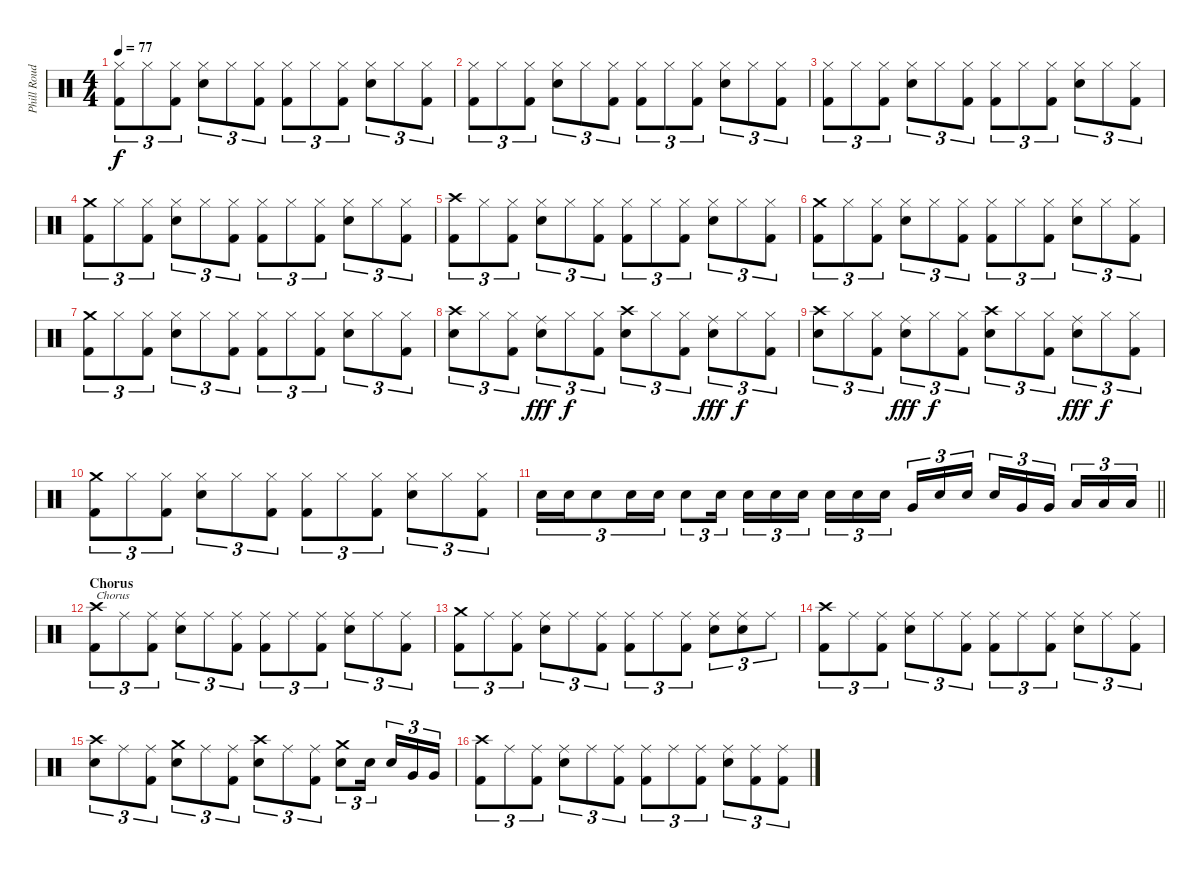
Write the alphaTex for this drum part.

\track ("Phill Roud" "Phill Roud") {instrument percussion}
\staff {score}
\articulation defaults
\ts (4 4)
\tempo 77
\clef neutral
\ks c
("Kick (hit) 2" "Hi-Hat (closed)").8{tu (3 2) dy f} "Hi-Hat (closed)".8{tu (3 2)} ("Kick (hit) 2" "Hi-Hat (closed)").8{tu (3 2)} ("Electric Snare (hit)" "Hi-Hat (closed)").8{tu (3 2)} "Hi-Hat (closed)".8{tu (3 2)} ("Kick (hit) 2" "Hi-Hat (closed)").8{tu (3 2)} ("Kick (hit) 2" "Hi-Hat (closed)").8{tu (3 2)} "Hi-Hat (closed)".8{tu (3 2)} ("Kick (hit) 2" "Hi-Hat (closed)").8{tu (3 2)} ("Electric Snare (hit)" "Hi-Hat (closed)").8{tu (3 2)} "Hi-Hat (closed)".8{tu (3 2)} ("Kick (hit) 2" "Hi-Hat (closed)").8{tu (3 2)} |
("Kick (hit) 2" "Hi-Hat (closed)").8{tu (3 2)} "Hi-Hat (closed)".8{tu (3 2)} ("Kick (hit) 2" "Hi-Hat (closed)").8{tu (3 2)} ("Electric Snare (hit)" "Hi-Hat (closed)").8{tu (3 2)} "Hi-Hat (closed)".8{tu (3 2)} ("Kick (hit) 2" "Hi-Hat (closed)").8{tu (3 2)} ("Kick (hit) 2" "Hi-Hat (closed)").8{tu (3 2)} "Hi-Hat (closed)".8{tu (3 2)} ("Kick (hit) 2" "Hi-Hat (closed)").8{tu (3 2)} ("Electric Snare (hit)" "Hi-Hat (closed)").8{tu (3 2)} "Hi-Hat (closed)".8{tu (3 2)} ("Kick (hit) 2" "Hi-Hat (closed)").8{tu (3 2)} |
("Kick (hit) 2" "Hi-Hat (closed)").8{tu (3 2)} "Hi-Hat (closed)".8{tu (3 2)} ("Kick (hit) 2" "Hi-Hat (closed)").8{tu (3 2)} ("Electric Snare (hit)" "Hi-Hat (closed)").8{tu (3 2)} "Hi-Hat (closed)".8{tu (3 2)} ("Kick (hit) 2" "Hi-Hat (closed)").8{tu (3 2)} ("Kick (hit) 2" "Hi-Hat (closed)").8{tu (3 2)} "Hi-Hat (closed)".8{tu (3 2)} ("Kick (hit) 2" "Hi-Hat (closed)").8{tu (3 2)} ("Electric Snare (hit)" "Hi-Hat (closed)").8{tu (3 2)} "Hi-Hat (closed)".8{tu (3 2)} ("Kick (hit) 2" "Hi-Hat (closed)").8{tu (3 2)} |
("Kick (hit) 2" "Crash medium (hit)").8{tu (3 2)} "Hi-Hat (closed)".8{tu (3 2)} ("Kick (hit) 2" "Hi-Hat (closed)").8{tu (3 2)} ("Electric Snare (hit)" "Hi-Hat (closed)").8{tu (3 2)} "Hi-Hat (closed)".8{tu (3 2)} ("Kick (hit) 2" "Hi-Hat (closed)").8{tu (3 2)} ("Kick (hit) 2" "Hi-Hat (closed)").8{tu (3 2)} "Hi-Hat (closed)".8{tu (3 2)} ("Kick (hit) 2" "Hi-Hat (closed)").8{tu (3 2)} ("Electric Snare (hit)" "Hi-Hat (closed)").8{tu (3 2)} "Hi-Hat (closed)".8{tu (3 2)} ("Kick (hit) 2" "Hi-Hat (closed)").8{tu (3 2)} |
("Kick (hit) 2" "Crash high (hit)").8{tu (3 2)} "Hi-Hat (closed)".8{tu (3 2)} ("Kick (hit) 2" "Hi-Hat (closed)").8{tu (3 2)} ("Electric Snare (hit)" "Hi-Hat (closed)").8{tu (3 2)} "Hi-Hat (closed)".8{tu (3 2)} ("Kick (hit) 2" "Hi-Hat (closed)").8{tu (3 2)} ("Kick (hit) 2" "Hi-Hat (closed)").8{tu (3 2)} "Hi-Hat (closed)".8{tu (3 2)} ("Kick (hit) 2" "Hi-Hat (closed)").8{tu (3 2)} ("Electric Snare (hit)" "Hi-Hat (closed)").8{tu (3 2)} "Hi-Hat (closed)".8{tu (3 2)} ("Kick (hit) 2" "Hi-Hat (closed)").8{tu (3 2)} |
("Kick (hit) 2" "Crash medium (hit)").8{tu (3 2)} "Hi-Hat (closed)".8{tu (3 2)} ("Kick (hit) 2" "Hi-Hat (closed)").8{tu (3 2)} ("Electric Snare (hit)" "Hi-Hat (closed)").8{tu (3 2)} "Hi-Hat (closed)".8{tu (3 2)} ("Kick (hit) 2" "Hi-Hat (closed)").8{tu (3 2)} ("Kick (hit) 2" "Hi-Hat (closed)").8{tu (3 2)} "Hi-Hat (closed)".8{tu (3 2)} ("Kick (hit) 2" "Hi-Hat (closed)").8{tu (3 2)} ("Electric Snare (hit)" "Hi-Hat (closed)").8{tu (3 2)} "Hi-Hat (closed)".8{tu (3 2)} ("Kick (hit) 2" "Hi-Hat (closed)").8{tu (3 2)} |
("Kick (hit) 2" "Crash medium (hit)").8{tu (3 2)} "Hi-Hat (closed)".8{tu (3 2)} ("Kick (hit) 2" "Hi-Hat (closed)").8{tu (3 2)} ("Electric Snare (hit)" "Hi-Hat (closed)").8{tu (3 2)} "Hi-Hat (closed)".8{tu (3 2)} ("Kick (hit) 2" "Hi-Hat (closed)").8{tu (3 2)} ("Kick (hit) 2" "Hi-Hat (closed)").8{tu (3 2)} "Hi-Hat (closed)".8{tu (3 2)} ("Kick (hit) 2" "Hi-Hat (closed)").8{tu (3 2)} ("Electric Snare (hit)" "Hi-Hat (closed)").8{tu (3 2)} "Hi-Hat (closed)".8{tu (3 2)} ("Kick (hit) 2" "Hi-Hat (closed)").8{tu (3 2)} |
("Electric Snare (hit)" "Crash high (hit)").8{tu (3 2)} "Hi-Hat (closed)".8{tu (3 2)} ("Kick (hit) 2" "Hi-Hat (closed)").8{tu (3 2)} ("Electric Snare (hit)" "Ride (middle)").8{tu (3 2) dy fff} "Hi-Hat (closed)".8{tu (3 2) dy f} ("Kick (hit) 2" "Hi-Hat (closed)").8{tu (3 2)} ("Electric Snare (hit)" "Crash high (hit)").8{tu (3 2)} "Hi-Hat (closed)".8{tu (3 2)} ("Kick (hit) 2" "Hi-Hat (closed)").8{tu (3 2)} ("Electric Snare (hit)" "Ride (middle)").8{tu (3 2) dy fff} "Hi-Hat (closed)".8{tu (3 2) dy f} ("Kick (hit) 2" "Hi-Hat (closed)").8{tu (3 2)} |
("Electric Snare (hit)" "Crash high (hit)").8{tu (3 2)} "Hi-Hat (closed)".8{tu (3 2)} ("Kick (hit) 2" "Hi-Hat (closed)").8{tu (3 2)} ("Electric Snare (hit)" "Ride (middle)").8{tu (3 2) dy fff} "Hi-Hat (closed)".8{tu (3 2) dy f} ("Kick (hit) 2" "Hi-Hat (closed)").8{tu (3 2)} ("Electric Snare (hit)" "Crash high (hit)").8{tu (3 2)} "Hi-Hat (closed)".8{tu (3 2)} ("Kick (hit) 2" "Hi-Hat (closed)").8{tu (3 2)} ("Electric Snare (hit)" "Ride (middle)").8{tu (3 2) dy fff} "Hi-Hat (closed)".8{tu (3 2) dy f} ("Kick (hit) 2" "Hi-Hat (closed)").8{tu (3 2)} |
("Kick (hit) 2" "Crash medium (hit)").8{tu (3 2)} "Hi-Hat (closed)".8{tu (3 2)} ("Kick (hit) 2" "Hi-Hat (closed)").8{tu (3 2)} ("Electric Snare (hit)" "Hi-Hat (closed)").8{tu (3 2)} "Hi-Hat (closed)".8{tu (3 2)} ("Kick (hit) 2" "Hi-Hat (closed)").8{tu (3 2)} ("Kick (hit) 2" "Hi-Hat (closed)").8{tu (3 2)} "Hi-Hat (closed)".8{tu (3 2)} ("Kick (hit) 2" "Hi-Hat (closed)").8{tu (3 2)} ("Electric Snare (hit)" "Hi-Hat (closed)").8{tu (3 2)} "Hi-Hat (closed)".8{tu (3 2)} ("Kick (hit) 2" "Hi-Hat (closed)").8{tu (3 2)} |
\barLineRight lightlight "Electric Snare (hit)".16{tu (3 2)} "Electric Snare (hit)".16{tu (3 2)} "Electric Snare (hit)".8{tu (3 2)} "Electric Snare (hit)".16{tu (3 2)} "Electric Snare (hit)".16{tu (3 2)} "Electric Snare (hit)".8{tu (3 2)} "Electric Snare (hit)".16{tu (3 2) beam splitsecondary} "Electric Snare (hit)".16{tu (3 2)} "Electric Snare (hit)".16{tu (3 2)} "Electric Snare (hit)".16{tu (3 2)} "Electric Snare (hit)".16{tu (3 2)} "Electric Snare (hit)".16{tu (3 2)} "Electric Snare (hit)".16{tu (3 2) beam splitsecondary} "Very Low Tom (hit)".16{tu (3 2)} "Electric Snare (hit)".16{tu (3 2)} "Electric Snare (hit)".16{tu (3 2)} "Electric Snare (hit)".16{tu (3 2)} "Very Low Tom (hit)".16{tu (3 2)} "Very Low Tom (hit)".16{tu (3 2) beam splitsecondary} "Low Floor Tom (hit)".16{tu (3 2)} "Low Floor Tom (hit)".16{tu (3 2)} "Low Floor Tom (hit)".16{tu (3 2)}
|
\section ("" "Chorus")
("Kick (hit) 2" "Crash high (hit)").8{tu (3 2) txt "Chorus"} "Ride (middle)".8{tu (3 2)} ("Kick (hit) 2" "Ride (middle)").8{tu (3 2)} ("Electric Snare (hit)" "Ride (middle)").8{tu (3 2)} "Ride (middle)".8{tu (3 2)} ("Kick (hit) 2" "Ride (middle)").8{tu (3 2)} ("Kick (hit) 2" "Ride (middle)").8{tu (3 2)} "Ride (middle)".8{tu (3 2)} ("Kick (hit) 2" "Ride (middle)").8{tu (3 2)} ("Electric Snare (hit)" "Ride (middle)").8{tu (3 2)} "Ride (middle)".8{tu (3 2)} ("Kick (hit) 2" "Ride (middle)").8{tu (3 2)} |
("Kick (hit) 2" "Crash medium (hit)").8{tu (3 2)} "Ride (middle)".8{tu (3 2)} ("Kick (hit) 2" "Ride (middle)").8{tu (3 2)} ("Electric Snare (hit)" "Ride (middle)").8{tu (3 2)} "Ride (middle)".8{tu (3 2)} ("Kick (hit) 2" "Ride (middle)").8{tu (3 2)} ("Kick (hit) 2" "Ride (middle)").8{tu (3 2)} "Ride (middle)".8{tu (3 2)} ("Kick (hit) 2" "Ride (middle)").8{tu (3 2)} ("Electric Snare (hit)" "Ride (middle)").8{tu (3 2)} ("Electric Snare (hit)" "Ride (middle)").8{tu (3 2)} "Ride (middle)".8{tu (3 2)} |
("Kick (hit) 2" "Crash high (hit)").8{tu (3 2)} "Ride (middle)".8{tu (3 2)} ("Kick (hit) 2" "Ride (middle)").8{tu (3 2)} ("Electric Snare (hit)" "Ride (middle)").8{tu (3 2)} "Ride (middle)".8{tu (3 2)} ("Kick (hit) 2" "Ride (middle)").8{tu (3 2)} ("Kick (hit) 2" "Ride (middle)").8{tu (3 2)} "Ride (middle)".8{tu (3 2)} ("Kick (hit) 2" "Ride (middle)").8{tu (3 2)} ("Electric Snare (hit)" "Ride (middle)").8{tu (3 2)} "Ride (middle)".8{tu (3 2)} ("Kick (hit) 2" "Ride (middle)").8{tu (3 2)} |
("Electric Snare (hit)" "Crash high (hit)").8{tu (3 2)} "Ride (middle)".8{tu (3 2)} ("Kick (hit) 2" "Ride (middle)").8{tu (3 2)} ("Electric Snare (hit)" "Crash medium (hit)").8{tu (3 2)} "Ride (middle)".8{tu (3 2)} ("Kick (hit) 2" "Ride (middle)").8{tu (3 2)} ("Electric Snare (hit)" "Crash high (hit)").8{tu (3 2)} "Ride (middle)".8{tu (3 2)} ("Kick (hit) 2" "Ride (middle)").8{tu (3 2)} ("Electric Snare (hit)" "Crash medium (hit)").8{tu (3 2)} "Electric Snare (hit)".16{tu (3 2) beam splitsecondary} "Electric Snare (hit)".16{tu (3 2)} "Very Low Tom (hit)".16{tu (3 2)} "Very Low Tom (hit)".16{tu (3 2)} |
("Kick (hit) 2" "Crash high (hit)").8{tu (3 2)} "Ride (middle)".8{tu (3 2)} ("Kick (hit) 2" "Ride (middle)").8{tu (3 2)} ("Electric Snare (hit)" "Ride (middle)").8{tu (3 2)} "Ride (middle)".8{tu (3 2)} ("Kick (hit) 2" "Ride (middle)").8{tu (3 2)} ("Kick (hit) 2" "Ride (middle)").8{tu (3 2)} "Ride (middle)".8{tu (3 2)} ("Kick (hit) 2" "Ride (middle)").8{tu (3 2)} ("Electric Snare (hit)" "Ride (middle)").8{tu (3 2)} ("Kick (hit) 2" "Ride (middle)").8{tu (3 2)} ("Kick (hit) 2" "Ride (middle)").8{tu (3 2)}
